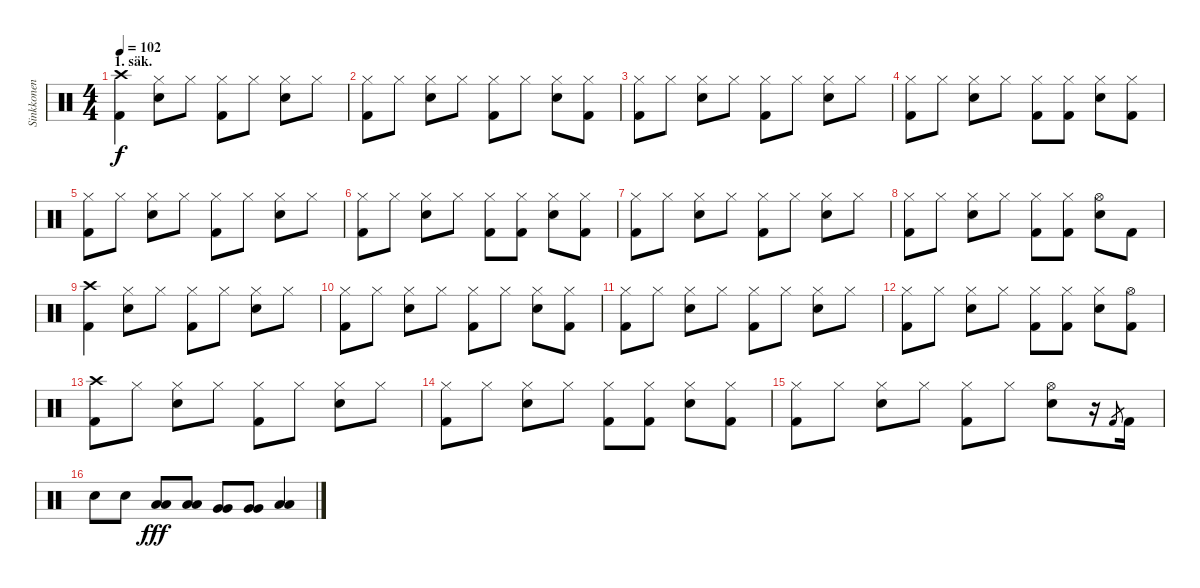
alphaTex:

\track ("Sinkkonen" "Sinkkonen") {instrument percussion}
\staff {score}
\articulation defaults
\ts (4 4)
\section ("" "1. säk.")
\tempo 102
\clef neutral
\ks c
("Kick (hit) 2" "Crash high (hit)").4{dy f} ("Hi-Hat (closed)" "Snare (hit) 2").8 "Hi-Hat (closed)".8 ("Kick (hit) 2" "Hi-Hat (closed)").8 "Hi-Hat (closed)".8 ("Hi-Hat (closed)" "Snare (hit) 2").8 "Hi-Hat (closed)".8 |
("Kick (hit) 2" "Hi-Hat (closed)").8 "Hi-Hat (closed)".8 ("Hi-Hat (closed)" "Snare (hit) 2").8 "Hi-Hat (closed)".8 ("Kick (hit) 2" "Hi-Hat (closed)").8 "Hi-Hat (closed)".8 ("Hi-Hat (closed)" "Snare (hit) 2").8 ("Kick (hit) 2" "Hi-Hat (closed)").8 |
("Kick (hit) 2" "Hi-Hat (closed)").8 "Hi-Hat (closed)".8 ("Hi-Hat (closed)" "Snare (hit) 2").8 "Hi-Hat (closed)".8 ("Kick (hit) 2" "Hi-Hat (closed)").8 "Hi-Hat (closed)".8 ("Hi-Hat (closed)" "Snare (hit) 2").8 "Hi-Hat (closed)".8 |
("Kick (hit) 2" "Hi-Hat (closed)").8 "Hi-Hat (closed)".8 ("Hi-Hat (closed)" "Snare (hit) 2").8 "Hi-Hat (closed)".8 ("Kick (hit) 2" "Hi-Hat (closed)").8 ("Kick (hit) 2" "Hi-Hat (closed)").8 ("Hi-Hat (closed)" "Snare (hit) 2").8 ("Kick (hit) 2" "Hi-Hat (closed)").8 |
("Kick (hit) 2" "Hi-Hat (closed)").8 "Hi-Hat (closed)".8 ("Hi-Hat (closed)" "Snare (hit) 2").8 "Hi-Hat (closed)".8 ("Kick (hit) 2" "Hi-Hat (closed)").8 "Hi-Hat (closed)".8 ("Hi-Hat (closed)" "Snare (hit) 2").8 "Hi-Hat (closed)".8 |
("Kick (hit) 2" "Hi-Hat (closed)").8 "Hi-Hat (closed)".8 ("Hi-Hat (closed)" "Snare (hit) 2").8 "Hi-Hat (closed)".8 ("Kick (hit) 2" "Hi-Hat (closed)").8 ("Kick (hit) 2" "Hi-Hat (closed)").8 ("Hi-Hat (closed)" "Snare (hit) 2").8 ("Kick (hit) 2" "Hi-Hat (closed)").8 |
("Kick (hit) 2" "Hi-Hat (closed)").8 "Hi-Hat (closed)".8 ("Hi-Hat (closed)" "Snare (hit) 2").8 "Hi-Hat (closed)".8 ("Kick (hit) 2" "Hi-Hat (closed)").8 "Hi-Hat (closed)".8 ("Hi-Hat (closed)" "Snare (hit) 2").8 "Hi-Hat (closed)".8 |
("Kick (hit) 2" "Hi-Hat (closed)").8 "Hi-Hat (closed)".8 ("Hi-Hat (closed)" "Snare (hit) 2").8 "Hi-Hat (closed)".8 ("Kick (hit) 2" "Hi-Hat (closed)").8 ("Kick (hit) 2" "Hi-Hat (closed)").8 ("Hi-Hat (open)" "Snare (hit) 2").8 "Kick (hit) 2".8 |
("Kick (hit) 2" "Crash high (hit)").4 ("Hi-Hat (closed)" "Snare (hit) 2").8 "Hi-Hat (closed)".8 ("Kick (hit) 2" "Hi-Hat (closed)").8 "Hi-Hat (closed)".8 ("Hi-Hat (closed)" "Snare (hit) 2").8 "Hi-Hat (closed)".8 |
("Kick (hit) 2" "Hi-Hat (closed)").8 "Hi-Hat (closed)".8 ("Hi-Hat (closed)" "Snare (hit) 2").8 "Hi-Hat (closed)".8 ("Kick (hit) 2" "Hi-Hat (closed)").8 "Hi-Hat (closed)".8 ("Hi-Hat (closed)" "Snare (hit) 2").8 ("Kick (hit) 2" "Hi-Hat (closed)").8 |
("Kick (hit) 2" "Hi-Hat (closed)").8 "Hi-Hat (closed)".8 ("Hi-Hat (closed)" "Snare (hit) 2").8 "Hi-Hat (closed)".8 ("Kick (hit) 2" "Hi-Hat (closed)").8 "Hi-Hat (closed)".8 ("Hi-Hat (closed)" "Snare (hit) 2").8 "Hi-Hat (closed)".8 |
("Kick (hit) 2" "Hi-Hat (closed)").8 "Hi-Hat (closed)".8 ("Hi-Hat (closed)" "Snare (hit) 2").8 "Hi-Hat (closed)".8 ("Kick (hit) 2" "Hi-Hat (closed)").8 ("Kick (hit) 2" "Hi-Hat (closed)").8 ("Hi-Hat (closed)" "Snare (hit) 2").8 ("Kick (hit) 2" "Hi-Hat (open)").8 |
("Kick (hit) 2" "Crash high (hit)").8 "Hi-Hat (closed)".8 ("Hi-Hat (closed)" "Snare (hit) 2").8 "Hi-Hat (closed)".8 ("Kick (hit) 2" "Hi-Hat (closed)").8 "Hi-Hat (closed)".8 ("Hi-Hat (closed)" "Snare (hit) 2").8 "Hi-Hat (closed)".8 |
("Kick (hit) 2" "Hi-Hat (closed)").8 "Hi-Hat (closed)".8 ("Hi-Hat (closed)" "Snare (hit) 2").8 "Hi-Hat (closed)".8 ("Kick (hit) 2" "Hi-Hat (closed)").8 ("Kick (hit) 2" "Hi-Hat (closed)").8 ("Hi-Hat (closed)" "Snare (hit) 2").8 ("Kick (hit) 2" "Hi-Hat (closed)").8 |
("Kick (hit) 2" "Hi-Hat (closed)").8 "Hi-Hat (closed)".8 ("Hi-Hat (closed)" "Snare (hit) 2").8 "Hi-Hat (closed)".8 ("Kick (hit) 2" "Hi-Hat (closed)").8 "Hi-Hat (closed)".8 ("Hi-Hat (open)" "Snare (hit) 2").8 r.16 "Kick (hit) 2".8{gr} "Kick (hit) 2".16 |
"Snare (hit) 2".8 "Snare (hit) 2".8 ("Low Tom (hit)" "Low Tom (hit)").8{dy fff} ("Low Tom (hit)" "Low Tom (hit)").8 ("Very Low Tom (hit)" "Very Low Tom (hit)").8 ("Very Low Tom (hit)" "Very Low Tom (hit)").8 ("Low Floor Tom (hit)" "Low Floor Tom (hit)").4
